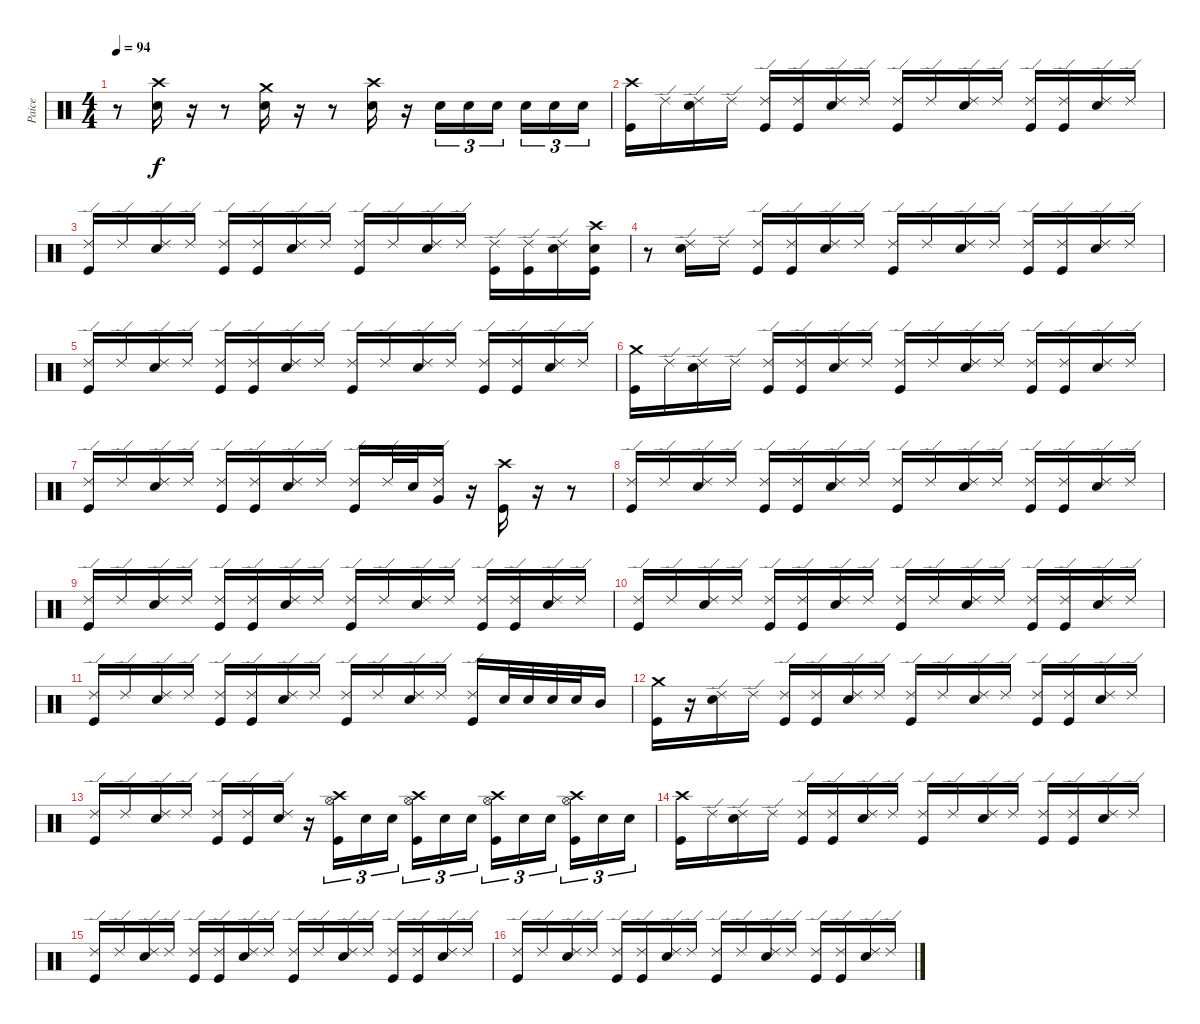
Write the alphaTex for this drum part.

\track ("Paice" "Paice") {instrument percussion}
\staff {score}
\articulation defaults
\ts (4 4)
\tempo 94
\clef neutral
\ks c
r.8{dy f} ("Crash high (hit)" "Snare (hit) 2").16 r.16 r.8 ("Crash medium (hit)" "Snare (hit) 2").16 r.16 r.8 ("Crash high (hit)" "Snare (hit) 2").16 r.16 "Snare (hit) 2".16{tu (3 2)} "Snare (hit) 2".16{tu (3 2)} "Snare (hit) 2".16{tu (3 2)} "Snare (hit) 2".16{tu (3 2)} "Snare (hit) 2".16{tu (3 2)} "Snare (hit) 2".16{tu (3 2)} |
("Crash high (hit)" "Kick (hit)").16 "Ride (edge) 2".16 ("Ride (edge) 2" "Snare (hit) 2").16 "Ride (edge) 2".16 ("Ride (edge) 2" "Kick (hit)").16 ("Ride (edge) 2" "Kick (hit)").16 ("Ride (edge) 2" "Snare (hit) 2").16 "Ride (edge) 2".16 ("Ride (edge) 2" "Kick (hit)").16 "Ride (edge) 2".16 ("Ride (edge) 2" "Snare (hit) 2").16 "Ride (edge) 2".16 ("Ride (edge) 2" "Kick (hit)").16 ("Ride (edge) 2" "Kick (hit)").16 ("Ride (edge) 2" "Snare (hit) 2").16 "Ride (edge) 2".16 |
("Ride (edge) 2" "Kick (hit)").16 "Ride (edge) 2".16 ("Ride (edge) 2" "Snare (hit) 2").16 "Ride (edge) 2".16 ("Ride (edge) 2" "Kick (hit)").16 ("Ride (edge) 2" "Kick (hit)").16 ("Ride (edge) 2" "Snare (hit) 2").16 "Ride (edge) 2".16 ("Ride (edge) 2" "Kick (hit)").16 "Ride (edge) 2".16 ("Ride (edge) 2" "Snare (hit) 2").16 "Ride (edge) 2".16 ("Ride (edge) 2" "Kick (hit)").16 ("Ride (edge) 2" "Kick (hit)").16 ("Ride (edge) 2" "Snare (hit) 2").16 ("Crash high (hit)" "Snare (hit) 2" "Kick (hit)").16 |
r.8 ("Ride (edge) 2" "Snare (hit) 2").16 "Ride (edge) 2".16 ("Ride (edge) 2" "Kick (hit)").16 ("Ride (edge) 2" "Kick (hit)").16 ("Ride (edge) 2" "Snare (hit) 2").16 "Ride (edge) 2".16 ("Ride (edge) 2" "Kick (hit)").16 "Ride (edge) 2".16 ("Ride (edge) 2" "Snare (hit) 2").16 "Ride (edge) 2".16 ("Ride (edge) 2" "Kick (hit)").16 ("Ride (edge) 2" "Kick (hit)").16 ("Ride (edge) 2" "Snare (hit) 2").16 "Ride (edge) 2".16 |
("Ride (edge) 2" "Kick (hit)").16 "Ride (edge) 2".16 ("Ride (edge) 2" "Snare (hit) 2").16 "Ride (edge) 2".16 ("Ride (edge) 2" "Kick (hit)").16 ("Ride (edge) 2" "Kick (hit)").16 ("Ride (edge) 2" "Snare (hit) 2").16 "Ride (edge) 2".16 ("Ride (edge) 2" "Kick (hit)").16 "Ride (edge) 2".16 ("Ride (edge) 2" "Snare (hit) 2").16 "Ride (edge) 2".16 ("Ride (edge) 2" "Kick (hit)").16 ("Ride (edge) 2" "Kick (hit)").16 ("Ride (edge) 2" "Snare (hit) 2").16 "Ride (edge) 2".16 |
("Crash medium (hit)" "Kick (hit)").16 "Ride (edge) 2".16 ("Ride (edge) 2" "Snare (hit) 2").16 "Ride (edge) 2".16 ("Ride (edge) 2" "Kick (hit)").16 ("Ride (edge) 2" "Kick (hit)").16 ("Ride (edge) 2" "Snare (hit) 2").16 "Ride (edge) 2".16 ("Ride (edge) 2" "Kick (hit)").16 "Ride (edge) 2".16 ("Ride (edge) 2" "Snare (hit) 2").16 "Ride (edge) 2".16 ("Ride (edge) 2" "Kick (hit)").16 ("Ride (edge) 2" "Kick (hit)").16 ("Ride (edge) 2" "Snare (hit) 2").16 "Ride (edge) 2".16 |
("Ride (edge) 2" "Kick (hit)").16 "Ride (edge) 2".16 ("Ride (edge) 2" "Snare (hit) 2").16 "Ride (edge) 2".16 ("Ride (edge) 2" "Kick (hit)").16 ("Ride (edge) 2" "Kick (hit)").16 ("Ride (edge) 2" "Snare (hit) 2").16 "Ride (edge) 2".16 ("Ride (edge) 2" "Kick (hit)").16 "Ride (edge) 2".32 "Snare (hit) 2".32 ("Ride (edge) 2" "Very Low Tom (hit)").16 r.16 ("Crash high (hit)" "Kick (hit)").16 r.16 r.8 |
("Ride (edge) 2" "Kick (hit)").16 "Ride (edge) 2".16 ("Ride (edge) 2" "Snare (hit) 2").16 "Ride (edge) 2".16 ("Ride (edge) 2" "Kick (hit)").16 ("Ride (edge) 2" "Kick (hit)").16 ("Ride (edge) 2" "Snare (hit) 2").16 "Ride (edge) 2".16 ("Ride (edge) 2" "Kick (hit)").16 "Ride (edge) 2".16 ("Ride (edge) 2" "Snare (hit) 2").16 "Ride (edge) 2".16 ("Ride (edge) 2" "Kick (hit)").16 ("Ride (edge) 2" "Kick (hit)").16 ("Ride (edge) 2" "Snare (hit) 2").16 "Ride (edge) 2".16 |
("Ride (edge) 2" "Kick (hit)").16 "Ride (edge) 2".16 ("Ride (edge) 2" "Snare (hit) 2").16 "Ride (edge) 2".16 ("Ride (edge) 2" "Kick (hit)").16 ("Ride (edge) 2" "Kick (hit)").16 ("Ride (edge) 2" "Snare (hit) 2").16 "Ride (edge) 2".16 ("Ride (edge) 2" "Kick (hit)").16 "Ride (edge) 2".16 ("Ride (edge) 2" "Snare (hit) 2").16 "Ride (edge) 2".16 ("Ride (edge) 2" "Kick (hit)").16 ("Ride (edge) 2" "Kick (hit)").16 ("Ride (edge) 2" "Snare (hit) 2").16 "Ride (edge) 2".16 |
("Ride (edge) 2" "Kick (hit)").16 "Ride (edge) 2".16 ("Ride (edge) 2" "Snare (hit) 2").16 "Ride (edge) 2".16 ("Ride (edge) 2" "Kick (hit)").16 ("Ride (edge) 2" "Kick (hit)").16 ("Ride (edge) 2" "Snare (hit) 2").16 "Ride (edge) 2".16 ("Ride (edge) 2" "Kick (hit)").16 "Ride (edge) 2".16 ("Ride (edge) 2" "Snare (hit) 2").16 "Ride (edge) 2".16 ("Ride (edge) 2" "Kick (hit)").16 ("Ride (edge) 2" "Kick (hit)").16 ("Ride (edge) 2" "Snare (hit) 2").16 "Ride (edge) 2".16 |
("Ride (edge) 2" "Kick (hit)").16 "Ride (edge) 2".16 ("Ride (edge) 2" "Snare (hit) 2").16 "Ride (edge) 2".16 ("Ride (edge) 2" "Kick (hit)").16 ("Ride (edge) 2" "Kick (hit)").16 ("Ride (edge) 2" "Snare (hit) 2").16 "Ride (edge) 2".16 ("Ride (edge) 2" "Kick (hit)").16 "Ride (edge) 2".16 ("Ride (edge) 2" "Snare (hit) 2").16 "Ride (edge) 2".16 ("Ride (edge) 2" "Kick (hit)").16 "Snare (hit) 2".32 "Snare (hit) 2".32 "Snare (hit) 2".32 "Snare (hit) 2".32 "Mid Tom (hit)".16 |
("Crash medium (hit)" "Kick (hit)").16 r.16 ("Ride (edge) 2" "Snare (hit) 2").16 "Ride (edge) 2".16 ("Ride (edge) 2" "Kick (hit)").16 ("Ride (edge) 2" "Kick (hit)").16 ("Ride (edge) 2" "Snare (hit) 2").16 "Ride (edge) 2".16 ("Ride (edge) 2" "Kick (hit)").16 "Ride (edge) 2".16 ("Ride (edge) 2" "Snare (hit) 2").16 "Ride (edge) 2".16 ("Ride (edge) 2" "Kick (hit)").16 ("Ride (edge) 2" "Kick (hit)").16 ("Ride (edge) 2" "Snare (hit) 2").16 "Ride (edge) 2".16 |
("Ride (edge) 2" "Kick (hit)").16 "Ride (edge) 2".16 ("Ride (edge) 2" "Snare (hit) 2").16 "Ride (edge) 2".16 ("Ride (edge) 2" "Kick (hit)").16 ("Ride (edge) 2" "Kick (hit)").16 ("Ride (edge) 2" "Snare (hit) 2").16 r.16 ("Crash high (hit)" "Hi-Hat (open)" "Kick (hit)").16{tu (3 2)} "Snare (hit) 2".16{tu (3 2)} "Snare (hit) 2".16{tu (3 2)} ("Crash high (hit)" "Hi-Hat (open)" "Kick (hit)").16{tu (3 2)} "Snare (hit) 2".16{tu (3 2)} "Snare (hit) 2".16{tu (3 2)} ("Crash high (hit)" "Hi-Hat (open)" "Kick (hit)").16{tu (3 2)} "Snare (hit) 2".16{tu (3 2)} "Snare (hit) 2".16{tu (3 2)} ("Crash high (hit)" "Hi-Hat (open)" "Kick (hit)").16{tu (3 2)} "Snare (hit) 2".16{tu (3 2)} "Snare (hit) 2".16{tu (3 2)} |
("Crash high (hit)" "Kick (hit)").16 "Ride (edge) 2".16 ("Ride (edge) 2" "Snare (hit) 2").16 "Ride (edge) 2".16 ("Ride (edge) 2" "Kick (hit)").16 ("Ride (edge) 2" "Kick (hit)").16 ("Ride (edge) 2" "Snare (hit) 2").16 "Ride (edge) 2".16 ("Ride (edge) 2" "Kick (hit)").16 "Ride (edge) 2".16 ("Ride (edge) 2" "Snare (hit) 2").16 "Ride (edge) 2".16 ("Ride (edge) 2" "Kick (hit)").16 ("Ride (edge) 2" "Kick (hit)").16 ("Ride (edge) 2" "Snare (hit) 2").16 "Ride (edge) 2".16 |
("Ride (edge) 2" "Kick (hit)").16 "Ride (edge) 2".16 ("Ride (edge) 2" "Snare (hit) 2").16 "Ride (edge) 2".16 ("Ride (edge) 2" "Kick (hit)").16 ("Ride (edge) 2" "Kick (hit)").16 ("Ride (edge) 2" "Snare (hit) 2").16 "Ride (edge) 2".16 ("Ride (edge) 2" "Kick (hit)").16 "Ride (edge) 2".16 ("Ride (edge) 2" "Snare (hit) 2").16 "Ride (edge) 2".16 ("Ride (edge) 2" "Kick (hit)").16 ("Ride (edge) 2" "Kick (hit)").16 ("Ride (edge) 2" "Snare (hit) 2").16 "Ride (edge) 2".16 |
("Ride (edge) 2" "Kick (hit)").16 "Ride (edge) 2".16 ("Ride (edge) 2" "Snare (hit) 2").16 "Ride (edge) 2".16 ("Ride (edge) 2" "Kick (hit)").16 ("Ride (edge) 2" "Kick (hit)").16 ("Ride (edge) 2" "Snare (hit) 2").16 "Ride (edge) 2".16 ("Ride (edge) 2" "Kick (hit)").16 "Ride (edge) 2".16 ("Ride (edge) 2" "Snare (hit) 2").16 "Ride (edge) 2".16 ("Ride (edge) 2" "Kick (hit)").16 ("Ride (edge) 2" "Kick (hit)").16 ("Ride (edge) 2" "Snare (hit) 2").16 "Ride (edge) 2".16
